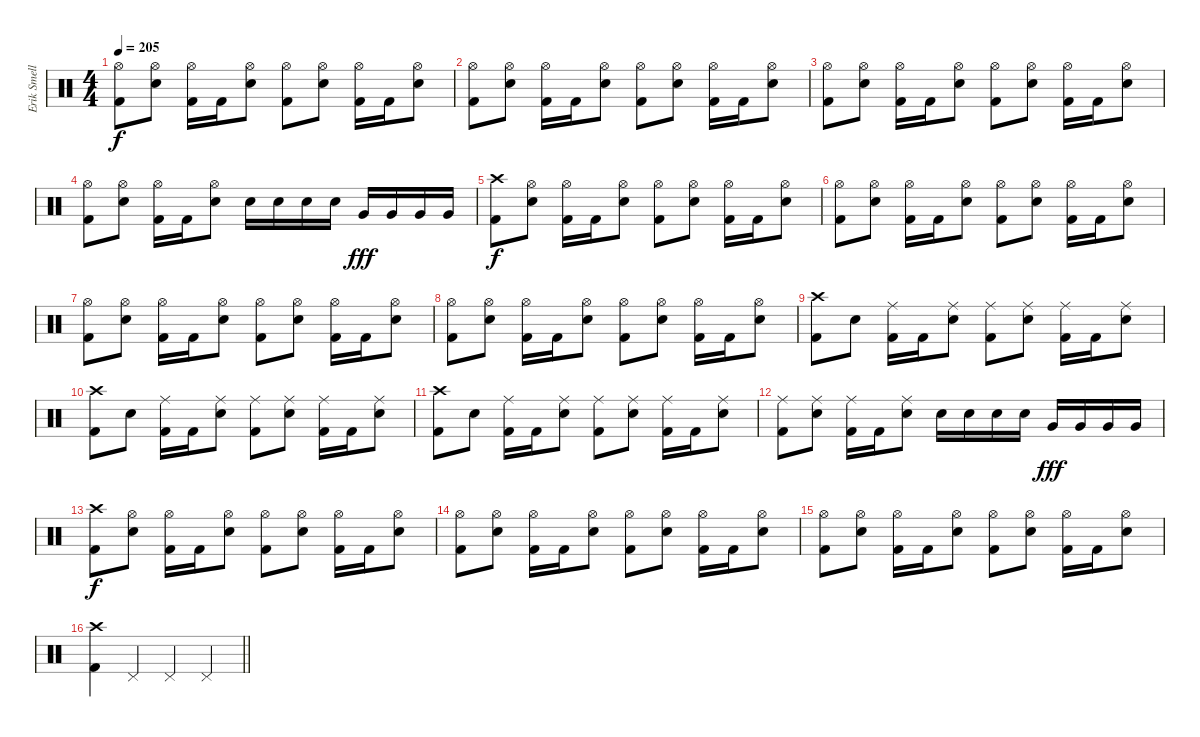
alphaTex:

\track ("Erik Smelly" "Erik Smell") {instrument percussion}
\staff {score}
\articulation defaults
\ts (4 4)
\tempo 205
\clef neutral
\ks c
("Hi-Hat (open)" "Kick (hit) 2").8{dy f} ("Hi-Hat (open)" "Electric Snare (hit)").8 ("Hi-Hat (open)" "Kick (hit) 2").16 "Kick (hit) 2".16 ("Hi-Hat (open)" "Electric Snare (hit)").8 ("Hi-Hat (open)" "Kick (hit) 2").8 ("Hi-Hat (open)" "Electric Snare (hit)").8 ("Hi-Hat (open)" "Kick (hit) 2").16 "Kick (hit) 2".16 ("Hi-Hat (open)" "Electric Snare (hit)").8 |
("Hi-Hat (open)" "Kick (hit) 2").8 ("Hi-Hat (open)" "Electric Snare (hit)").8 ("Hi-Hat (open)" "Kick (hit) 2").16 "Kick (hit) 2".16 ("Hi-Hat (open)" "Electric Snare (hit)").8 ("Hi-Hat (open)" "Kick (hit) 2").8 ("Hi-Hat (open)" "Electric Snare (hit)").8 ("Hi-Hat (open)" "Kick (hit) 2").16 "Kick (hit) 2".16 ("Hi-Hat (open)" "Electric Snare (hit)").8 |
("Hi-Hat (open)" "Kick (hit) 2").8 ("Hi-Hat (open)" "Electric Snare (hit)").8 ("Hi-Hat (open)" "Kick (hit) 2").16 "Kick (hit) 2".16 ("Hi-Hat (open)" "Electric Snare (hit)").8 ("Hi-Hat (open)" "Kick (hit) 2").8 ("Hi-Hat (open)" "Electric Snare (hit)").8 ("Hi-Hat (open)" "Kick (hit) 2").16 "Kick (hit) 2".16 ("Hi-Hat (open)" "Electric Snare (hit)").8 |
("Hi-Hat (open)" "Kick (hit) 2").8 ("Hi-Hat (open)" "Electric Snare (hit)").8 ("Hi-Hat (open)" "Kick (hit) 2").16 "Kick (hit) 2".16 ("Hi-Hat (open)" "Electric Snare (hit)").8 "Electric Snare (hit)".16 "Electric Snare (hit)".16 "Electric Snare (hit)".16 "Electric Snare (hit)".16 "Very Low Tom (hit)".16{dy fff} "Very Low Tom (hit)".16 "Very Low Tom (hit)".16 "Very Low Tom (hit)".16 |
("Crash high (hit)" "Kick (hit) 2").8{dy f} ("Hi-Hat (open)" "Electric Snare (hit)").8 ("Hi-Hat (open)" "Kick (hit) 2").16 "Kick (hit) 2".16 ("Hi-Hat (open)" "Electric Snare (hit)").8 ("Hi-Hat (open)" "Kick (hit) 2").8 ("Hi-Hat (open)" "Electric Snare (hit)").8 ("Hi-Hat (open)" "Kick (hit) 2").16 "Kick (hit) 2".16 ("Hi-Hat (open)" "Electric Snare (hit)").8 |
("Hi-Hat (open)" "Kick (hit) 2").8 ("Hi-Hat (open)" "Electric Snare (hit)").8 ("Hi-Hat (open)" "Kick (hit) 2").16 "Kick (hit) 2".16 ("Hi-Hat (open)" "Electric Snare (hit)").8 ("Hi-Hat (open)" "Kick (hit) 2").8 ("Hi-Hat (open)" "Electric Snare (hit)").8 ("Hi-Hat (open)" "Kick (hit) 2").16 "Kick (hit) 2".16 ("Hi-Hat (open)" "Electric Snare (hit)").8 |
("Hi-Hat (open)" "Kick (hit) 2").8 ("Hi-Hat (open)" "Electric Snare (hit)").8 ("Hi-Hat (open)" "Kick (hit) 2").16 "Kick (hit) 2".16 ("Hi-Hat (open)" "Electric Snare (hit)").8 ("Hi-Hat (open)" "Kick (hit) 2").8 ("Hi-Hat (open)" "Electric Snare (hit)").8 ("Hi-Hat (open)" "Kick (hit) 2").16 "Kick (hit) 2".16 ("Hi-Hat (open)" "Electric Snare (hit)").8 |
("Hi-Hat (open)" "Kick (hit) 2").8 ("Hi-Hat (open)" "Electric Snare (hit)").8 ("Hi-Hat (open)" "Kick (hit) 2").16 "Kick (hit) 2".16 ("Hi-Hat (open)" "Electric Snare (hit)").8 ("Hi-Hat (open)" "Kick (hit) 2").8 ("Hi-Hat (open)" "Electric Snare (hit)").8 ("Hi-Hat (open)" "Kick (hit) 2").16 "Kick (hit) 2".16 ("Hi-Hat (open)" "Electric Snare (hit)").8 |
("Crash high (hit)" "Kick (hit) 2").8 "Electric Snare (hit)".8 ("Ride (middle)" "Kick (hit) 2").16 "Kick (hit) 2".16 ("Ride (middle)" "Electric Snare (hit)").8 ("Ride (middle)" "Kick (hit) 2").8 ("Ride (middle)" "Electric Snare (hit)").8 ("Ride (middle)" "Kick (hit) 2").16 "Kick (hit) 2".16 ("Ride (middle)" "Electric Snare (hit)").8 |
("Crash high (hit)" "Kick (hit) 2").8 "Electric Snare (hit)".8 ("Ride (middle)" "Kick (hit) 2").16 "Kick (hit) 2".16 ("Ride (middle)" "Electric Snare (hit)").8 ("Ride (middle)" "Kick (hit) 2").8 ("Ride (middle)" "Electric Snare (hit)").8 ("Ride (middle)" "Kick (hit) 2").16 "Kick (hit) 2".16 ("Ride (middle)" "Electric Snare (hit)").8 |
("Crash high (hit)" "Kick (hit) 2").8 "Electric Snare (hit)".8 ("Ride (middle)" "Kick (hit) 2").16 "Kick (hit) 2".16 ("Ride (middle)" "Electric Snare (hit)").8 ("Ride (middle)" "Kick (hit) 2").8 ("Ride (middle)" "Electric Snare (hit)").8 ("Ride (middle)" "Kick (hit) 2").16 "Kick (hit) 2".16 ("Ride (middle)" "Electric Snare (hit)").8 |
("Ride (middle)" "Kick (hit) 2").8 ("Ride (middle)" "Electric Snare (hit)").8 ("Ride (middle)" "Kick (hit) 2").16 "Kick (hit) 2".16 ("Ride (middle)" "Electric Snare (hit)").8 "Electric Snare (hit)".16 "Electric Snare (hit)".16 "Electric Snare (hit)".16 "Electric Snare (hit)".16 "Very Low Tom (hit)".16{dy fff} "Very Low Tom (hit)".16 "Very Low Tom (hit)".16 "Very Low Tom (hit)".16 |
("Crash high (hit)" "Kick (hit) 2").8{dy f} ("Hi-Hat (open)" "Electric Snare (hit)").8 ("Hi-Hat (open)" "Kick (hit) 2").16 "Kick (hit) 2".16 ("Hi-Hat (open)" "Electric Snare (hit)").8 ("Hi-Hat (open)" "Kick (hit) 2").8 ("Hi-Hat (open)" "Electric Snare (hit)").8 ("Hi-Hat (open)" "Kick (hit) 2").16 "Kick (hit) 2".16 ("Hi-Hat (open)" "Electric Snare (hit)").8 |
("Hi-Hat (open)" "Kick (hit) 2").8 ("Hi-Hat (open)" "Electric Snare (hit)").8 ("Hi-Hat (open)" "Kick (hit) 2").16 "Kick (hit) 2".16 ("Hi-Hat (open)" "Electric Snare (hit)").8 ("Hi-Hat (open)" "Kick (hit) 2").8 ("Hi-Hat (open)" "Electric Snare (hit)").8 ("Hi-Hat (open)" "Kick (hit) 2").16 "Kick (hit) 2".16 ("Hi-Hat (open)" "Electric Snare (hit)").8 |
("Hi-Hat (open)" "Kick (hit) 2").8 ("Hi-Hat (open)" "Electric Snare (hit)").8 ("Hi-Hat (open)" "Kick (hit) 2").16 "Kick (hit) 2".16 ("Hi-Hat (open)" "Electric Snare (hit)").8 ("Hi-Hat (open)" "Kick (hit) 2").8 ("Hi-Hat (open)" "Electric Snare (hit)").8 ("Hi-Hat (open)" "Kick (hit) 2").16 "Kick (hit) 2".16 ("Hi-Hat (open)" "Electric Snare (hit)").8 |
\barLineRight lightlight
("Crash high (hit)" "Kick (hit) 2").4 "Pedal Hi-Hat (hit)".4 "Pedal Hi-Hat (hit)".4 "Pedal Hi-Hat (hit)".4
